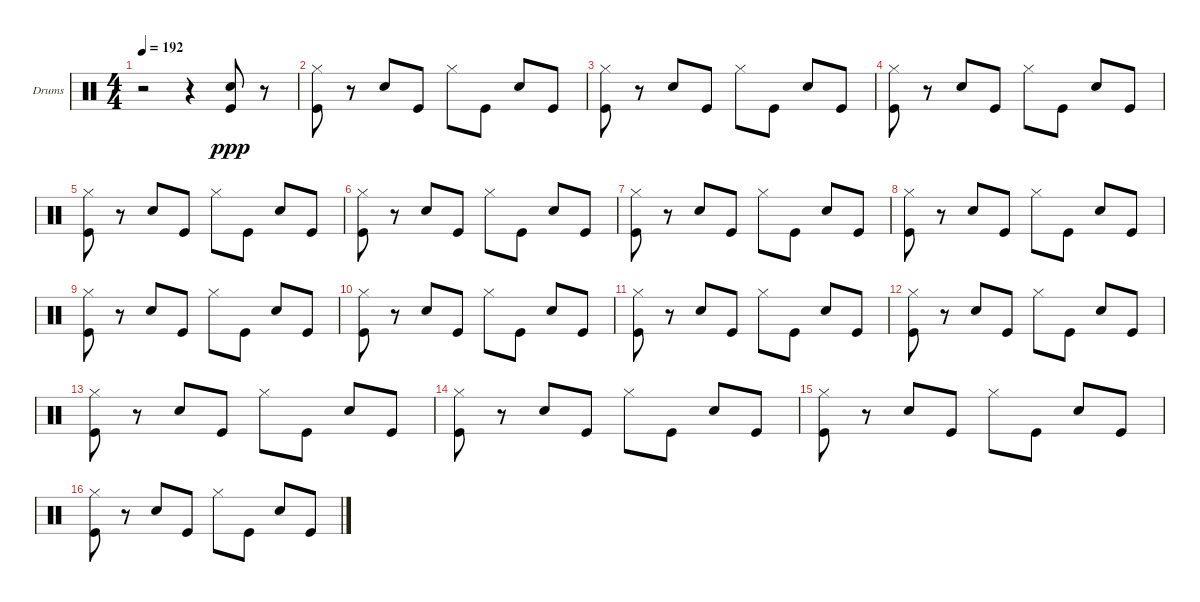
\bracketExtendMode groupsimilarinstruments
\firstSystemTrackNameOrientation horizontal
\otherSystemsTrackNameOrientation horizontal
\track ("Drumkit" "Drums") {instrument percussion}
\staff {score}
\articulation defaults
\ts (4 4)
\tempo 192
\clef neutral
\ks aminor
r.2{dy ppp} r.4 ("Snare (hit) 2" "Kick (hit)").8 r.8 |
\ks c
("Kick (hit)" "Hi-Hat (closed)").8 r.8 "Snare (hit) 2".8 "Kick (hit)".8 "Hi-Hat (closed)".8 "Kick (hit)".8 "Snare (hit) 2".8 "Kick (hit)".8 |
("Kick (hit)" "Hi-Hat (closed)").8 r.8 "Snare (hit) 2".8 "Kick (hit)".8 "Hi-Hat (closed)".8 "Kick (hit)".8 "Snare (hit) 2".8 "Kick (hit)".8 |
("Kick (hit)" "Hi-Hat (closed)").8 r.8 "Snare (hit) 2".8 "Kick (hit)".8 "Hi-Hat (closed)".8 "Kick (hit)".8 "Snare (hit) 2".8 "Kick (hit)".8 |
("Kick (hit)" "Hi-Hat (closed)").8 r.8 "Snare (hit) 2".8 "Kick (hit)".8 "Hi-Hat (closed)".8 "Kick (hit)".8 "Snare (hit) 2".8 "Kick (hit)".8 |
("Kick (hit)" "Hi-Hat (closed)").8 r.8 "Snare (hit) 2".8 "Kick (hit)".8 "Hi-Hat (closed)".8 "Kick (hit)".8 "Snare (hit) 2".8 "Kick (hit)".8 |
("Kick (hit)" "Hi-Hat (closed)").8 r.8 "Snare (hit) 2".8 "Kick (hit)".8 "Hi-Hat (closed)".8 "Kick (hit)".8 "Snare (hit) 2".8 "Kick (hit)".8 |
("Kick (hit)" "Hi-Hat (closed)").8 r.8 "Snare (hit) 2".8 "Kick (hit)".8 "Hi-Hat (closed)".8 "Kick (hit)".8 "Snare (hit) 2".8 "Kick (hit)".8 |
("Kick (hit)" "Hi-Hat (closed)").8 r.8 "Snare (hit) 2".8 "Kick (hit)".8 "Hi-Hat (closed)".8 "Kick (hit)".8 "Snare (hit) 2".8 "Kick (hit)".8 |
("Kick (hit)" "Hi-Hat (closed)").8 r.8 "Snare (hit) 2".8 "Kick (hit)".8 "Hi-Hat (closed)".8 "Kick (hit)".8 "Snare (hit) 2".8 "Kick (hit)".8 |
("Kick (hit)" "Hi-Hat (closed)").8 r.8 "Snare (hit) 2".8 "Kick (hit)".8 "Hi-Hat (closed)".8 "Kick (hit)".8 "Snare (hit) 2".8 "Kick (hit)".8 |
("Kick (hit)" "Hi-Hat (closed)").8 r.8 "Snare (hit) 2".8 "Kick (hit)".8 "Hi-Hat (closed)".8 "Kick (hit)".8 "Snare (hit) 2".8 "Kick (hit)".8 |
("Kick (hit)" "Hi-Hat (closed)").8 r.8 "Snare (hit) 2".8 "Kick (hit)".8 "Hi-Hat (closed)".8 "Kick (hit)".8 "Snare (hit) 2".8 "Kick (hit)".8 |
("Kick (hit)" "Hi-Hat (closed)").8 r.8 "Snare (hit) 2".8 "Kick (hit)".8 "Hi-Hat (closed)".8 "Kick (hit)".8 "Snare (hit) 2".8 "Kick (hit)".8 |
("Kick (hit)" "Hi-Hat (closed)").8 r.8 "Snare (hit) 2".8 "Kick (hit)".8 "Hi-Hat (closed)".8 "Kick (hit)".8 "Snare (hit) 2".8 "Kick (hit)".8 |
("Kick (hit)" "Hi-Hat (closed)").8 r.8 "Snare (hit) 2".8 "Kick (hit)".8 "Hi-Hat (closed)".8 "Kick (hit)".8 "Snare (hit) 2".8 "Kick (hit)".8
